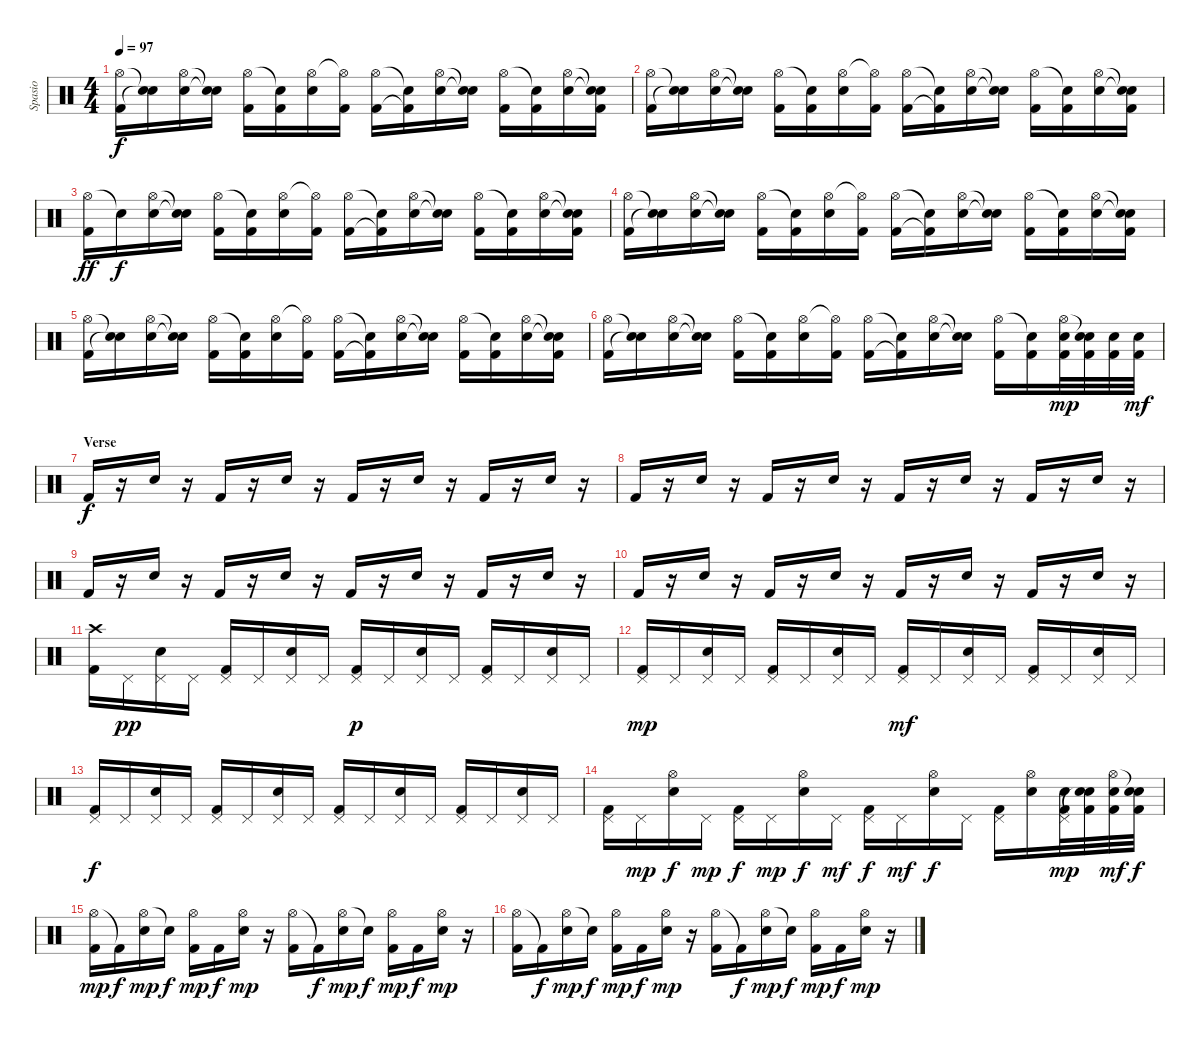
\track ("Spasio" "Spasio") {instrument percussion}
\staff {score}
\articulation defaults
\ts (4 4)
\tempo 97
\clef neutral
\ks c
("Hi-Hat (open)" "Kick (hit) 2").16{dy f} ("Snare (hit)"{t} "Snare (hit)"{t}).16 ("Hi-Hat (open)" "Electric Snare (hit)").16 ("Snare (hit)"{t} "Snare (hit)"{t}).16 ("Hi-Hat (open)" "Kick (hit) 2").16 ("Snare (hit)"{t} "Kick (hit) 2").16 ("Hi-Hat (open)" "Electric Snare (hit)").16 ("Hi-Hat (open)"{t} "Kick (hit) 2").16 ("Hi-Hat (open)" "Kick (hit) 2").16 ("Snare (hit)"{t} "Kick (hit) 2"{t}).16 ("Hi-Hat (open)" "Electric Snare (hit)").16 ("Snare (hit)"{t} "Electric Snare (hit)"{t}).16 ("Hi-Hat (open)" "Kick (hit) 2").16 ("Snare (hit)"{t} "Kick (hit) 2").16 ("Hi-Hat (open)" "Electric Snare (hit)").16 ("Snare (hit)"{t} "Snare (hit)"{t} "Kick (hit) 2").16 |
("Hi-Hat (open)" "Kick (hit) 2").16 ("Snare (hit)"{t} "Snare (hit)"{t}).16 ("Hi-Hat (open)" "Electric Snare (hit)").16 ("Snare (hit)"{t} "Snare (hit)"{t}).16 ("Hi-Hat (open)" "Kick (hit) 2").16 ("Snare (hit)"{t} "Kick (hit) 2").16 ("Hi-Hat (open)" "Electric Snare (hit)").16 ("Hi-Hat (open)"{t} "Kick (hit) 2").16 ("Hi-Hat (open)" "Kick (hit) 2").16 ("Snare (hit)"{t} "Kick (hit) 2"{t}).16 ("Hi-Hat (open)" "Electric Snare (hit)").16 ("Snare (hit)"{t} "Electric Snare (hit)"{t}).16 ("Hi-Hat (open)" "Kick (hit) 2").16 ("Snare (hit)"{t} "Kick (hit) 2").16 ("Hi-Hat (open)" "Electric Snare (hit)").16 ("Snare (hit)"{t} "Snare (hit)"{t} "Kick (hit) 2").16 |
("Hi-Hat (open)" "Kick (hit) 2").16{dy ff} "Snare (hit)"{t}.16{dy f} ("Hi-Hat (open)" "Electric Snare (hit)").16 ("Snare (hit)"{t} "Snare (hit)"{t}).16 ("Hi-Hat (open)" "Kick (hit) 2").16 ("Snare (hit)"{t} "Kick (hit) 2").16 ("Hi-Hat (open)" "Electric Snare (hit)").16 ("Hi-Hat (open)"{t} "Kick (hit) 2").16 ("Hi-Hat (open)" "Kick (hit) 2").16 ("Snare (hit)"{t} "Kick (hit) 2"{t}).16 ("Hi-Hat (open)" "Electric Snare (hit)").16 ("Snare (hit)"{t} "Electric Snare (hit)"{t}).16 ("Hi-Hat (open)" "Kick (hit) 2").16 ("Snare (hit)"{t} "Kick (hit) 2").16 ("Hi-Hat (open)" "Electric Snare (hit)").16 ("Snare (hit)"{t} "Snare (hit)"{t} "Kick (hit) 2").16 |
("Hi-Hat (open)" "Kick (hit) 2").16 ("Snare (hit)"{t} "Snare (hit)"{t}).16 ("Hi-Hat (open)" "Electric Snare (hit)").16 ("Snare (hit)"{t} "Snare (hit)"{t}).16 ("Hi-Hat (open)" "Kick (hit) 2").16 ("Snare (hit)"{t} "Kick (hit) 2").16 ("Hi-Hat (open)" "Electric Snare (hit)").16 ("Hi-Hat (open)"{t} "Kick (hit) 2").16 ("Hi-Hat (open)" "Kick (hit) 2").16 ("Snare (hit)"{t} "Kick (hit) 2"{t}).16 ("Hi-Hat (open)" "Electric Snare (hit)").16 ("Snare (hit)"{t} "Electric Snare (hit)"{t}).16 ("Hi-Hat (open)" "Kick (hit) 2").16 ("Snare (hit)"{t} "Kick (hit) 2").16 ("Hi-Hat (open)" "Electric Snare (hit)").16 ("Snare (hit)"{t} "Snare (hit)"{t} "Kick (hit) 2").16 |
("Hi-Hat (open)" "Kick (hit) 2").16 ("Snare (hit)"{t} "Snare (hit)"{t}).16 ("Hi-Hat (open)" "Electric Snare (hit)").16 ("Snare (hit)"{t} "Snare (hit)"{t}).16 ("Hi-Hat (open)" "Kick (hit) 2").16 ("Snare (hit)"{t} "Kick (hit) 2").16 ("Hi-Hat (open)" "Electric Snare (hit)").16 ("Hi-Hat (open)"{t} "Kick (hit) 2").16 ("Hi-Hat (open)" "Kick (hit) 2").16 ("Snare (hit)"{t} "Kick (hit) 2"{t}).16 ("Hi-Hat (open)" "Electric Snare (hit)").16 ("Snare (hit)"{t} "Electric Snare (hit)"{t}).16 ("Hi-Hat (open)" "Kick (hit) 2").16 ("Snare (hit)"{t} "Kick (hit) 2").16 ("Hi-Hat (open)" "Electric Snare (hit)").16 ("Snare (hit)"{t} "Snare (hit)"{t} "Kick (hit) 2").16 |
("Hi-Hat (open)" "Kick (hit) 2").16 ("Snare (hit)"{t} "Snare (hit)"{t}).16 ("Hi-Hat (open)" "Electric Snare (hit)").16 ("Snare (hit)"{t} "Snare (hit)"{t}).16 ("Hi-Hat (open)" "Kick (hit) 2").16 ("Snare (hit)"{t} "Kick (hit) 2").16 ("Hi-Hat (open)" "Electric Snare (hit)").16 ("Hi-Hat (open)"{t} "Kick (hit) 2").16 ("Hi-Hat (open)" "Kick (hit) 2").16 ("Snare (hit)"{t} "Kick (hit) 2"{t}).16 ("Hi-Hat (open)" "Electric Snare (hit)").16 ("Snare (hit)"{t} "Electric Snare (hit)"{t}).16 ("Hi-Hat (open)" "Kick (hit) 2").16 ("Snare (hit)"{t} "Kick (hit) 2").16 ("Hi-Hat (open)" "Electric Snare (hit)" "Kick (hit) 2").32{dy mp} ("Snare (hit)"{t} "Electric Snare (hit)" "Kick (hit) 2").32 ("Electric Snare (hit)" "Kick (hit) 2").32 ("Electric Snare (hit)" "Kick (hit) 2").32{dy mf} |
\section ("" "Verse")
"Kick (hit) 2".16{dy f} r.16 "Electric Snare (hit)".16 r.16 "Kick (hit) 2".16 r.16 "Electric Snare (hit)".16 r.16 "Kick (hit) 2".16 r.16 "Electric Snare (hit)".16 r.16 "Kick (hit) 2".16 r.16 "Electric Snare (hit)".16 r.16 |
"Kick (hit) 2".16 r.16 "Electric Snare (hit)".16 r.16 "Kick (hit) 2".16 r.16 "Electric Snare (hit)".16 r.16 "Kick (hit) 2".16 r.16 "Electric Snare (hit)".16 r.16 "Kick (hit) 2".16 r.16 "Electric Snare (hit)".16 r.16 |
"Kick (hit) 2".16 r.16 "Electric Snare (hit)".16 r.16 "Kick (hit) 2".16 r.16 "Electric Snare (hit)".16 r.16 "Kick (hit) 2".16 r.16 "Electric Snare (hit)".16 r.16 "Kick (hit) 2".16 r.16 "Electric Snare (hit)".16 r.16 |
"Kick (hit) 2".16 r.16 "Electric Snare (hit)".16 r.16 "Kick (hit) 2".16 r.16 "Electric Snare (hit)".16 r.16 "Kick (hit) 2".16 r.16 "Electric Snare (hit)".16 r.16 "Kick (hit) 2".16 r.16 "Electric Snare (hit)".16 r.16 |
("Crash high (hit)" "Kick (hit) 2").16 "Pedal Hi-Hat (hit)".16{dy pp} ("Pedal Hi-Hat (hit)" "Electric Snare (hit)").16 "Pedal Hi-Hat (hit)".16 ("Pedal Hi-Hat (hit)" "Kick (hit) 2").16 "Pedal Hi-Hat (hit)".16 ("Pedal Hi-Hat (hit)" "Electric Snare (hit)").16 "Pedal Hi-Hat (hit)".16 ("Pedal Hi-Hat (hit)" "Kick (hit) 2").16{dy p} "Pedal Hi-Hat (hit)".16 ("Pedal Hi-Hat (hit)" "Electric Snare (hit)").16 "Pedal Hi-Hat (hit)".16 ("Pedal Hi-Hat (hit)" "Kick (hit) 2").16 "Pedal Hi-Hat (hit)".16 ("Pedal Hi-Hat (hit)" "Electric Snare (hit)").16 "Pedal Hi-Hat (hit)".16 |
("Pedal Hi-Hat (hit)" "Kick (hit) 2").16{dy mp} "Pedal Hi-Hat (hit)".16 ("Pedal Hi-Hat (hit)" "Electric Snare (hit)").16 "Pedal Hi-Hat (hit)".16 ("Pedal Hi-Hat (hit)" "Kick (hit) 2").16 "Pedal Hi-Hat (hit)".16 ("Pedal Hi-Hat (hit)" "Electric Snare (hit)").16 "Pedal Hi-Hat (hit)".16 ("Pedal Hi-Hat (hit)" "Kick (hit) 2").16{dy mf} "Pedal Hi-Hat (hit)".16 ("Pedal Hi-Hat (hit)" "Electric Snare (hit)").16 "Pedal Hi-Hat (hit)".16 ("Pedal Hi-Hat (hit)" "Kick (hit) 2").16 "Pedal Hi-Hat (hit)".16 ("Pedal Hi-Hat (hit)" "Electric Snare (hit)").16 "Pedal Hi-Hat (hit)".16 |
("Pedal Hi-Hat (hit)" "Kick (hit) 2").16{dy f} "Pedal Hi-Hat (hit)".16 ("Pedal Hi-Hat (hit)" "Electric Snare (hit)").16 "Pedal Hi-Hat (hit)".16 ("Pedal Hi-Hat (hit)" "Kick (hit) 2").16 "Pedal Hi-Hat (hit)".16 ("Pedal Hi-Hat (hit)" "Electric Snare (hit)").16 "Pedal Hi-Hat (hit)".16 ("Pedal Hi-Hat (hit)" "Kick (hit) 2").16 "Pedal Hi-Hat (hit)".16 ("Pedal Hi-Hat (hit)" "Electric Snare (hit)").16 "Pedal Hi-Hat (hit)".16 ("Pedal Hi-Hat (hit)" "Kick (hit) 2").16 "Pedal Hi-Hat (hit)".16 ("Pedal Hi-Hat (hit)" "Electric Snare (hit)").16 "Pedal Hi-Hat (hit)".16 |
("Pedal Hi-Hat (hit)" "Kick (hit) 2").16 "Pedal Hi-Hat (hit)".16{dy mp} ("Hi-Hat (open)" "Electric Snare (hit)").16{dy f} "Pedal Hi-Hat (hit)".16{dy mp} ("Pedal Hi-Hat (hit)" "Kick (hit) 2").16{dy f} "Pedal Hi-Hat (hit)".16{dy mp} ("Hi-Hat (open)" "Electric Snare (hit)").16{dy f} "Pedal Hi-Hat (hit)".16{dy mf} ("Pedal Hi-Hat (hit)" "Kick (hit) 2").16{dy f} "Pedal Hi-Hat (hit)".16{dy mf} ("Hi-Hat (open)" "Electric Snare (hit)").16{dy f} "Pedal Hi-Hat (hit)".16 ("Pedal Hi-Hat (hit)" "Kick (hit) 2").16 ("Hi-Hat (open)" "Electric Snare (hit)").16 ("Pedal Hi-Hat (hit)" "Electric Snare (hit)" "Kick (hit) 2").32{dy mp} ("Snare (hit)"{t} "Electric Snare (hit)" "Kick (hit) 2").32 ("Hi-Hat (open)" "Electric Snare (hit)" "Kick (hit) 2").32{dy mf} ("Snare (hit)"{t} "Electric Snare (hit)" "Kick (hit) 2").32{dy f} |
("Hi-Hat (open)" "Kick (hit) 2").16{dy mp} "Kick (hit) 2"{t}.16{dy f} ("Hi-Hat (open)" "Electric Snare (hit)").16{dy mp} "Snare (hit)"{t}.16{dy f} ("Hi-Hat (open)" "Kick (hit) 2").16{dy mp} "Kick (hit) 2".16{dy f} ("Hi-Hat (open)" "Electric Snare (hit)").16{dy mp} r.16 ("Hi-Hat (open)" "Kick (hit) 2").16 "Kick (hit) 2"{t}.16{dy f} ("Hi-Hat (open)" "Electric Snare (hit)").16{dy mp} "Electric Snare (hit)"{t}.16{dy f} ("Hi-Hat (open)" "Kick (hit) 2").16{dy mp} "Kick (hit) 2".16{dy f} ("Hi-Hat (open)" "Electric Snare (hit)").16{dy mp} r.16 |
("Hi-Hat (open)" "Kick (hit) 2").16 "Kick (hit) 2"{t}.16{dy f} ("Hi-Hat (open)" "Electric Snare (hit)").16{dy mp} "Snare (hit)"{t}.16{dy f} ("Hi-Hat (open)" "Kick (hit) 2").16{dy mp} "Kick (hit) 2".16{dy f} ("Hi-Hat (open)" "Electric Snare (hit)").16{dy mp} r.16 ("Hi-Hat (open)" "Kick (hit) 2").16 "Kick (hit) 2"{t}.16{dy f} ("Hi-Hat (open)" "Electric Snare (hit)").16{dy mp} "Electric Snare (hit)"{t}.16{dy f} ("Hi-Hat (open)" "Kick (hit) 2").16{dy mp} "Kick (hit) 2".16{dy f} ("Hi-Hat (open)" "Electric Snare (hit)").16{dy mp} r.16
